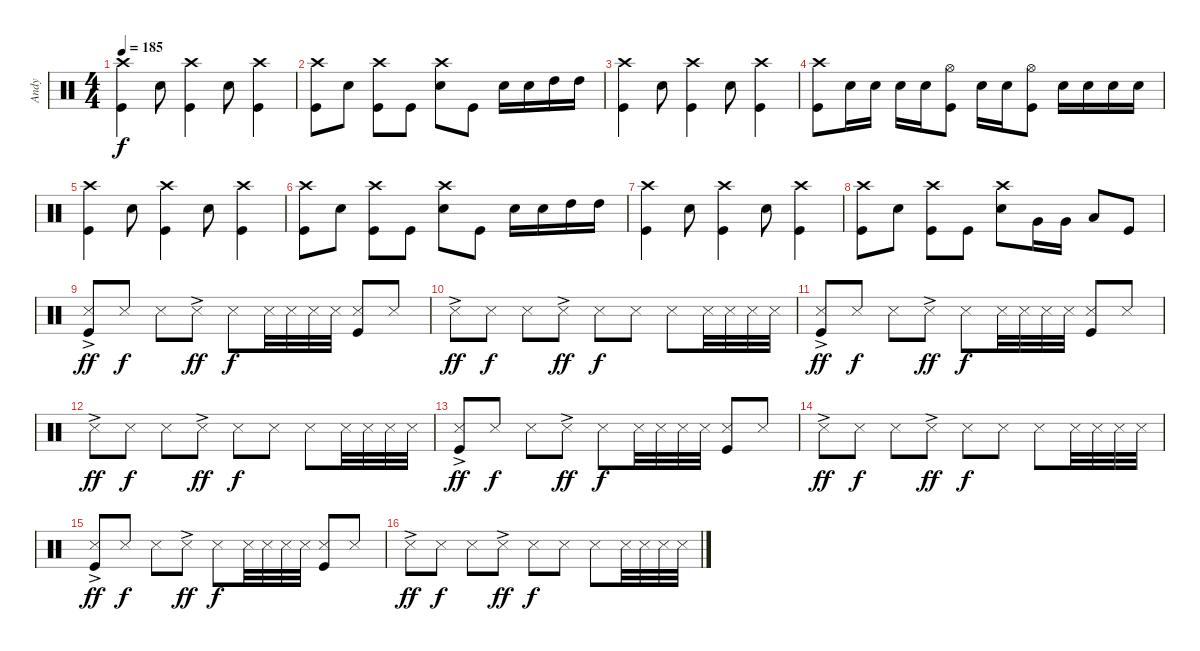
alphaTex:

\track ("Andy" "Andy") {instrument percussion}
\staff {score}
\articulation defaults
\ts (4 4)
\tempo 185
\clef neutral
\ks c
("Kick (hit)" "Crash high (hit)").4{dy f} "Snare (hit) 2".8 ("Kick (hit)" "Crash high (hit)").4 "Snare (hit) 2".8 ("Kick (hit)" "Crash high (hit)").4 |
("Kick (hit)" "Crash high (hit)").8 "Snare (hit) 2".8 ("Kick (hit)" "Crash high (hit)").8 "Kick (hit)".8 ("Snare (hit) 2" "Crash high (hit)").8 "Kick (hit)".8 "Snare (hit) 2".16 "Snare (hit) 2".16 "High Tom (hit)".16 "High Tom (hit)".16 |
("Kick (hit)" "Crash high (hit)").4 "Snare (hit) 2".8 ("Kick (hit)" "Crash high (hit)").4 "Snare (hit) 2".8 ("Kick (hit)" "Crash high (hit)").4 |
("Kick (hit)" "Crash high (hit)").8 "Snare (hit) 2".16 "Snare (hit) 2".16 "Snare (hit) 2".16 "Snare (hit) 2".16 ("Kick (hit)" "Hi-Hat (open)").8 "Snare (hit) 2".16 "Snare (hit) 2".16 ("Kick (hit)" "Hi-Hat (open)").8 "Snare (hit) 2".16 "Snare (hit) 2".16 "Snare (hit) 2".16 "Snare (hit) 2".16 |
("Kick (hit)" "Crash high (hit)").4 "Snare (hit) 2".8 ("Kick (hit)" "Crash high (hit)").4 "Snare (hit) 2".8 ("Kick (hit)" "Crash high (hit)").4 |
("Kick (hit)" "Crash high (hit)").8 "Snare (hit) 2".8 ("Kick (hit)" "Crash high (hit)").8 "Kick (hit)".8 ("Snare (hit) 2" "Crash high (hit)").8 "Kick (hit)".8 "Snare (hit) 2".16 "Snare (hit) 2".16 "High Tom (hit)".16 "High Tom (hit)".16 |
("Kick (hit)" "Crash high (hit)").4 "Snare (hit) 2".8 ("Kick (hit)" "Crash high (hit)").4 "Snare (hit) 2".8 ("Kick (hit)" "Crash high (hit)").4 |
("Kick (hit)" "Crash high (hit)").8 "Snare (hit) 2".8 ("Kick (hit)" "Crash high (hit)").8 "Kick (hit)".8 ("Snare (hit) 2" "Crash high (hit)").8 "Very Low Tom (hit)".16 "Very Low Tom (hit)".16 "Low Floor Tom (hit)".8 "Kick (hit)".8 |
("Snare (side stick) 3"{ac} "Kick (hit)").8{dy ff} "Snare (side stick) 3".8{dy f} "Snare (side stick) 3".8 "Snare (side stick) 3"{ac}.8{dy ff} "Snare (side stick) 3".8{dy f} "Snare (side stick) 3".32 "Snare (side stick) 3".32 "Snare (side stick) 3".32 "Snare (side stick) 3".32 ("Snare (side stick) 3" "Kick (hit)").8 "Snare (side stick) 3".8 |
"Snare (side stick) 3"{ac}.8{dy ff} "Snare (side stick) 3".8{dy f} "Snare (side stick) 3".8 "Snare (side stick) 3"{ac}.8{dy ff} "Snare (side stick) 3".8{dy f} "Snare (side stick) 3".8 "Snare (side stick) 3".8 "Snare (side stick) 3".32 "Snare (side stick) 3".32 "Snare (side stick) 3".32 "Snare (side stick) 3".32 |
("Snare (side stick) 3"{ac} "Kick (hit)").8{dy ff} "Snare (side stick) 3".8{dy f} "Snare (side stick) 3".8 "Snare (side stick) 3"{ac}.8{dy ff} "Snare (side stick) 3".8{dy f} "Snare (side stick) 3".32 "Snare (side stick) 3".32 "Snare (side stick) 3".32 "Snare (side stick) 3".32 ("Snare (side stick) 3" "Kick (hit)").8 "Snare (side stick) 3".8 |
"Snare (side stick) 3"{ac}.8{dy ff} "Snare (side stick) 3".8{dy f} "Snare (side stick) 3".8 "Snare (side stick) 3"{ac}.8{dy ff} "Snare (side stick) 3".8{dy f} "Snare (side stick) 3".8 "Snare (side stick) 3".8 "Snare (side stick) 3".32 "Snare (side stick) 3".32 "Snare (side stick) 3".32 "Snare (side stick) 3".32 |
("Snare (side stick) 3"{ac} "Kick (hit)").8{dy ff} "Snare (side stick) 3".8{dy f} "Snare (side stick) 3".8 "Snare (side stick) 3"{ac}.8{dy ff} "Snare (side stick) 3".8{dy f} "Snare (side stick) 3".32 "Snare (side stick) 3".32 "Snare (side stick) 3".32 "Snare (side stick) 3".32 ("Snare (side stick) 3" "Kick (hit)").8 "Snare (side stick) 3".8 |
"Snare (side stick) 3"{ac}.8{dy ff} "Snare (side stick) 3".8{dy f} "Snare (side stick) 3".8 "Snare (side stick) 3"{ac}.8{dy ff} "Snare (side stick) 3".8{dy f} "Snare (side stick) 3".8 "Snare (side stick) 3".8 "Snare (side stick) 3".32 "Snare (side stick) 3".32 "Snare (side stick) 3".32 "Snare (side stick) 3".32 |
("Snare (side stick) 3"{ac} "Kick (hit)").8{dy ff} "Snare (side stick) 3".8{dy f} "Snare (side stick) 3".8 "Snare (side stick) 3"{ac}.8{dy ff} "Snare (side stick) 3".8{dy f} "Snare (side stick) 3".32 "Snare (side stick) 3".32 "Snare (side stick) 3".32 "Snare (side stick) 3".32 ("Snare (side stick) 3" "Kick (hit)").8 "Snare (side stick) 3".8 |
"Snare (side stick) 3"{ac}.8{dy ff} "Snare (side stick) 3".8{dy f} "Snare (side stick) 3".8 "Snare (side stick) 3"{ac}.8{dy ff} "Snare (side stick) 3".8{dy f} "Snare (side stick) 3".8 "Snare (side stick) 3".8 "Snare (side stick) 3".32 "Snare (side stick) 3".32 "Snare (side stick) 3".32 "Snare (side stick) 3".32
